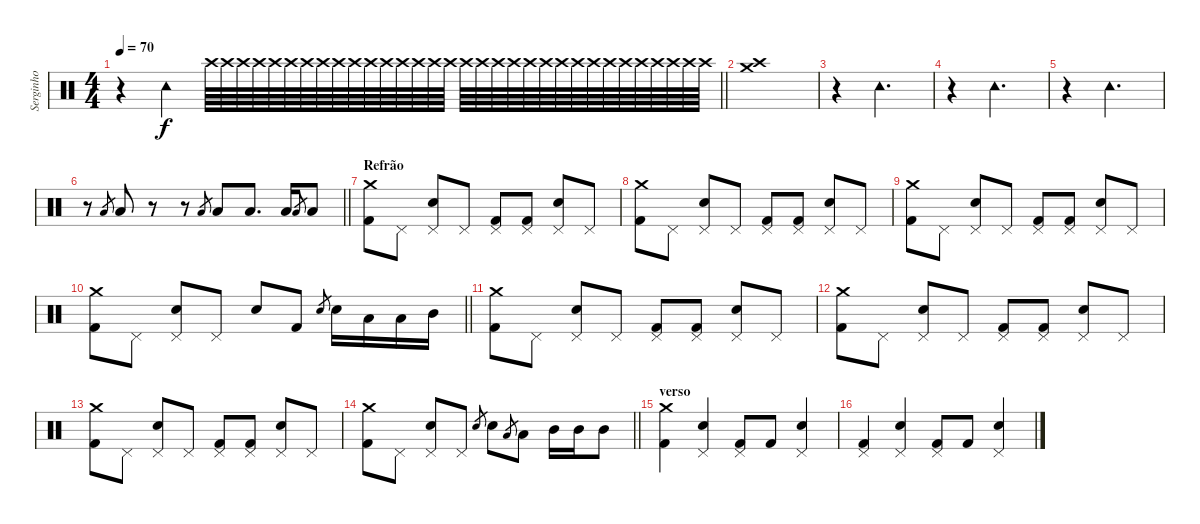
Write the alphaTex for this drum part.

\track ("Serginho" "Serginho") {instrument percussion}
\staff {score}
\articulation defaults
\ts (4 4)
\tempo 70
\clef neutral
\barLineRight lightlight
\ks c
r.4{dy f} "Tambourine (hit)".4{volume 0} "Crash high (hit)".64{volume 14} "Crash high (hit)".64 "Crash high (hit)".64 "Crash high (hit)".64 "Crash high (hit)".64 "Crash high (hit)".64 "Crash high (hit)".64 "Crash high (hit)".64 "Crash high (hit)".64 "Crash high (hit)".64 "Crash high (hit)".64 "Crash high (hit)".64 "Crash high (hit)".64 "Crash high (hit)".64 "Crash high (hit)".64 "Crash high (hit)".64 "Crash high (hit)".64 "Crash high (hit)".64 "Crash high (hit)".64 "Crash high (hit)".64 "Crash high (hit)".64 "Crash high (hit)".64 "Crash high (hit)".64 "Crash high (hit)".64 "Crash high (hit)".64 "Crash high (hit)".64 "Crash high (hit)".64 "Crash high (hit)".64 "Crash high (hit)".64 "Crash high (hit)".64 "Crash high (hit)".64 "Crash high (hit)".64 |
("Crash medium (hit)" "Crash high (hit)").1 |
r.4 "Tambourine (hit)".2{d} |
r.4 "Tambourine (hit)".2{d} |
r.4 "Tambourine (hit)".2{d} |
\barLineRight lightlight
r.8 "Low Tom (hit)".8{gr} "Low Tom (hit)".8 r.8 r.8 "Low Tom (hit)".8{gr} "Low Tom (hit)".8 "Low Tom (hit)".8{d} "Low Tom (hit)".16 "Low Tom (hit)".8{gr} "Low Tom (hit)".8 |
\section ("" "Refrão")
("Crash medium (hit)" "Kick (hit) 2").8 "Pedal Hi-Hat (hit)".8 ("Pedal Hi-Hat (hit)" "Snare (hit) 2").8 "Pedal Hi-Hat (hit)".8 ("Pedal Hi-Hat (hit)" "Kick (hit) 2").8 ("Pedal Hi-Hat (hit)" "Kick (hit) 2").8 ("Pedal Hi-Hat (hit)" "Snare (hit) 2").8 "Pedal Hi-Hat (hit)".8 |
("Crash medium (hit)" "Kick (hit) 2").8 "Pedal Hi-Hat (hit)".8 ("Pedal Hi-Hat (hit)" "Snare (hit) 2").8 "Pedal Hi-Hat (hit)".8 ("Pedal Hi-Hat (hit)" "Kick (hit) 2").8 ("Pedal Hi-Hat (hit)" "Kick (hit) 2").8 ("Pedal Hi-Hat (hit)" "Snare (hit) 2").8 "Pedal Hi-Hat (hit)".8 |
("Crash medium (hit)" "Kick (hit) 2").8 "Pedal Hi-Hat (hit)".8 ("Pedal Hi-Hat (hit)" "Snare (hit) 2").8 "Pedal Hi-Hat (hit)".8 ("Pedal Hi-Hat (hit)" "Kick (hit) 2").8 ("Pedal Hi-Hat (hit)" "Kick (hit) 2").8 ("Pedal Hi-Hat (hit)" "Snare (hit) 2").8 "Pedal Hi-Hat (hit)".8 |
\barLineRight lightlight
("Crash medium (hit)" "Kick (hit) 2").8 "Pedal Hi-Hat (hit)".8 ("Pedal Hi-Hat (hit)" "Snare (hit) 2").8 "Pedal Hi-Hat (hit)".8 "Snare (hit) 2".8 "Kick (hit) 2".8 "Snare (hit) 2".8{gr} "Snare (hit) 2".16 "Low Tom (hit)".16 "Low Tom (hit)".16 "Mid Tom (hit)".16 |
("Crash medium (hit)" "Kick (hit) 2").8 "Pedal Hi-Hat (hit)".8 ("Pedal Hi-Hat (hit)" "Snare (hit) 2").8 "Pedal Hi-Hat (hit)".8 ("Pedal Hi-Hat (hit)" "Kick (hit) 2").8 ("Pedal Hi-Hat (hit)" "Kick (hit) 2").8 ("Pedal Hi-Hat (hit)" "Snare (hit) 2").8 "Pedal Hi-Hat (hit)".8 |
("Crash medium (hit)" "Kick (hit) 2").8 "Pedal Hi-Hat (hit)".8 ("Pedal Hi-Hat (hit)" "Snare (hit) 2").8 "Pedal Hi-Hat (hit)".8 ("Pedal Hi-Hat (hit)" "Kick (hit) 2").8 ("Pedal Hi-Hat (hit)" "Kick (hit) 2").8 ("Pedal Hi-Hat (hit)" "Snare (hit) 2").8 "Pedal Hi-Hat (hit)".8 |
("Crash medium (hit)" "Kick (hit) 2").8 "Pedal Hi-Hat (hit)".8 ("Pedal Hi-Hat (hit)" "Snare (hit) 2").8 "Pedal Hi-Hat (hit)".8 ("Pedal Hi-Hat (hit)" "Kick (hit) 2").8 ("Pedal Hi-Hat (hit)" "Kick (hit) 2").8 ("Pedal Hi-Hat (hit)" "Snare (hit) 2").8 "Pedal Hi-Hat (hit)".8 |
\barLineRight lightlight
("Crash medium (hit)" "Kick (hit) 2").8 "Pedal Hi-Hat (hit)".8 ("Pedal Hi-Hat (hit)" "Snare (hit) 2").8 "Pedal Hi-Hat (hit)".8 "Snare (hit) 2".8{gr} "Snare (hit) 2".8 "Low Tom (hit)".8{gr} "Low Tom (hit)".8 "Mid Tom (hit)".16 "Mid Tom (hit)".16 "Mid Tom (hit)".8 |
\section ("" "verso")
("Crash medium (hit)" "Kick (hit) 2").4 ("Pedal Hi-Hat (hit)" "Snare (hit) 2").4 ("Pedal Hi-Hat (hit)" "Kick (hit) 2").8 "Kick (hit) 2".8 ("Pedal Hi-Hat (hit)" "Snare (hit) 2").4 |
("Pedal Hi-Hat (hit)" "Kick (hit) 2").4 ("Pedal Hi-Hat (hit)" "Snare (hit) 2").4 ("Pedal Hi-Hat (hit)" "Kick (hit) 2").8 "Kick (hit) 2".8 ("Pedal Hi-Hat (hit)" "Snare (hit) 2").4
